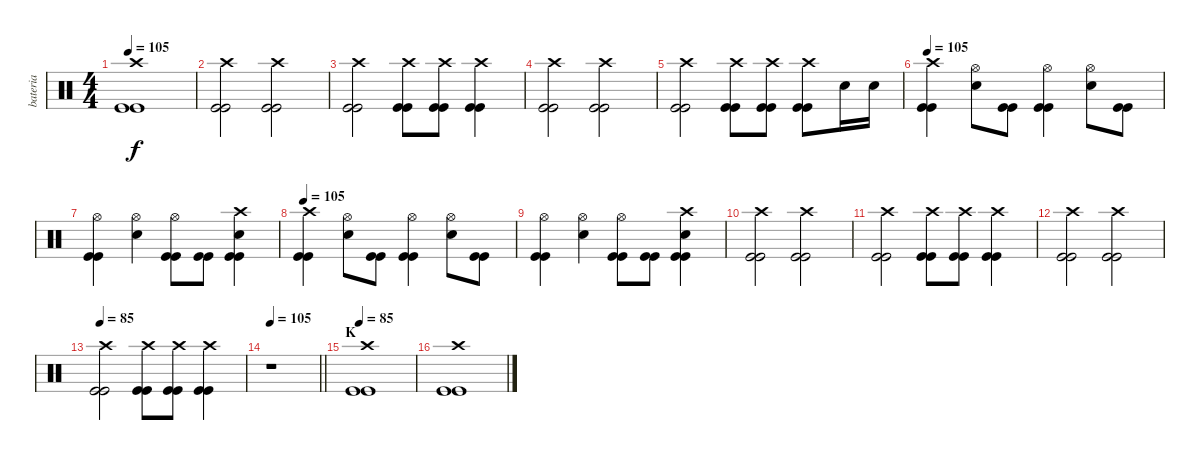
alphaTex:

\track ("bateria" "bateria") {instrument percussion}
\staff {score}
\articulation defaults
\ts (4 4)
\tempo 105
\clef neutral
\ks c
("Crash high (hit)" "Kick (hit)" "Kick (hit)").1{dy f} |
("Crash high (hit)" "Kick (hit)" "Kick (hit)").2 ("Crash high (hit)" "Kick (hit)" "Kick (hit)").2 |
("Crash high (hit)" "Kick (hit)" "Kick (hit)").2 ("Crash high (hit)" "Kick (hit)" "Kick (hit)").8 ("Crash high (hit)" "Kick (hit)" "Kick (hit)").8 ("Crash high (hit)" "Kick (hit)" "Kick (hit)").4 |
("Crash high (hit)" "Kick (hit)" "Kick (hit)").2 ("Crash high (hit)" "Kick (hit)" "Kick (hit)").2 |
("Crash high (hit)" "Kick (hit)" "Kick (hit)").2 ("Crash high (hit)" "Kick (hit)" "Kick (hit)").8 ("Crash high (hit)" "Kick (hit)" "Kick (hit)").8 ("Crash high (hit)" "Kick (hit)" "Kick (hit)").8 "Snare (hit) 2".16 "Snare (hit) 2".16 |
\tempo 105
("Crash high (hit)" "Kick (hit)" "Kick (hit)").4 ("Hi-Hat (open)" "Snare (hit) 2").8 ("Kick (hit)" "Kick (hit)").8 ("Hi-Hat (open)" "Kick (hit)" "Kick (hit)").4 ("Hi-Hat (open)" "Snare (hit) 2").8 ("Kick (hit)" "Kick (hit)").8 |
("Hi-Hat (open)" "Kick (hit)" "Kick (hit)").4 ("Hi-Hat (open)" "Snare (hit) 2").4 ("Hi-Hat (open)" "Kick (hit)" "Kick (hit)").8 ("Kick (hit)" "Kick (hit)").8 ("Crash high (hit)" "Snare (hit) 2" "Kick (hit)" "Kick (hit)").4 |
\tempo 105
("Crash high (hit)" "Kick (hit)" "Kick (hit)").4 ("Hi-Hat (open)" "Snare (hit) 2").8 ("Kick (hit)" "Kick (hit)").8 ("Hi-Hat (open)" "Kick (hit)" "Kick (hit)").4 ("Hi-Hat (open)" "Snare (hit) 2").8 ("Kick (hit)" "Kick (hit)").8 |
("Hi-Hat (open)" "Kick (hit)" "Kick (hit)").4 ("Hi-Hat (open)" "Snare (hit) 2").4 ("Hi-Hat (open)" "Kick (hit)" "Kick (hit)").8 ("Kick (hit)" "Kick (hit)").8 ("Crash high (hit)" "Snare (hit) 2" "Kick (hit)" "Kick (hit)").4 |
("Crash high (hit)" "Kick (hit)" "Kick (hit)").2 ("Crash high (hit)" "Kick (hit)" "Kick (hit)").2 |
("Crash high (hit)" "Kick (hit)" "Kick (hit)").2 ("Crash high (hit)" "Kick (hit)" "Kick (hit)").8 ("Crash high (hit)" "Kick (hit)" "Kick (hit)").8 ("Crash high (hit)" "Kick (hit)" "Kick (hit)").4 |
("Crash high (hit)" "Kick (hit)" "Kick (hit)").2 ("Crash high (hit)" "Kick (hit)" "Kick (hit)").2 |
\tempo 85
("Crash high (hit)" "Kick (hit)" "Kick (hit)").2 ("Crash high (hit)" "Kick (hit)" "Kick (hit)").8 ("Crash high (hit)" "Kick (hit)" "Kick (hit)").8 ("Crash high (hit)" "Kick (hit)" "Kick (hit)").4 |
\tempo 105
\barLineRight lightlight
r.1 |
\section ("" "K")
\tempo 85
("Crash high (hit)" "Kick (hit)" "Kick (hit)").1 |
("Crash high (hit)" "Kick (hit)" "Kick (hit)").1
